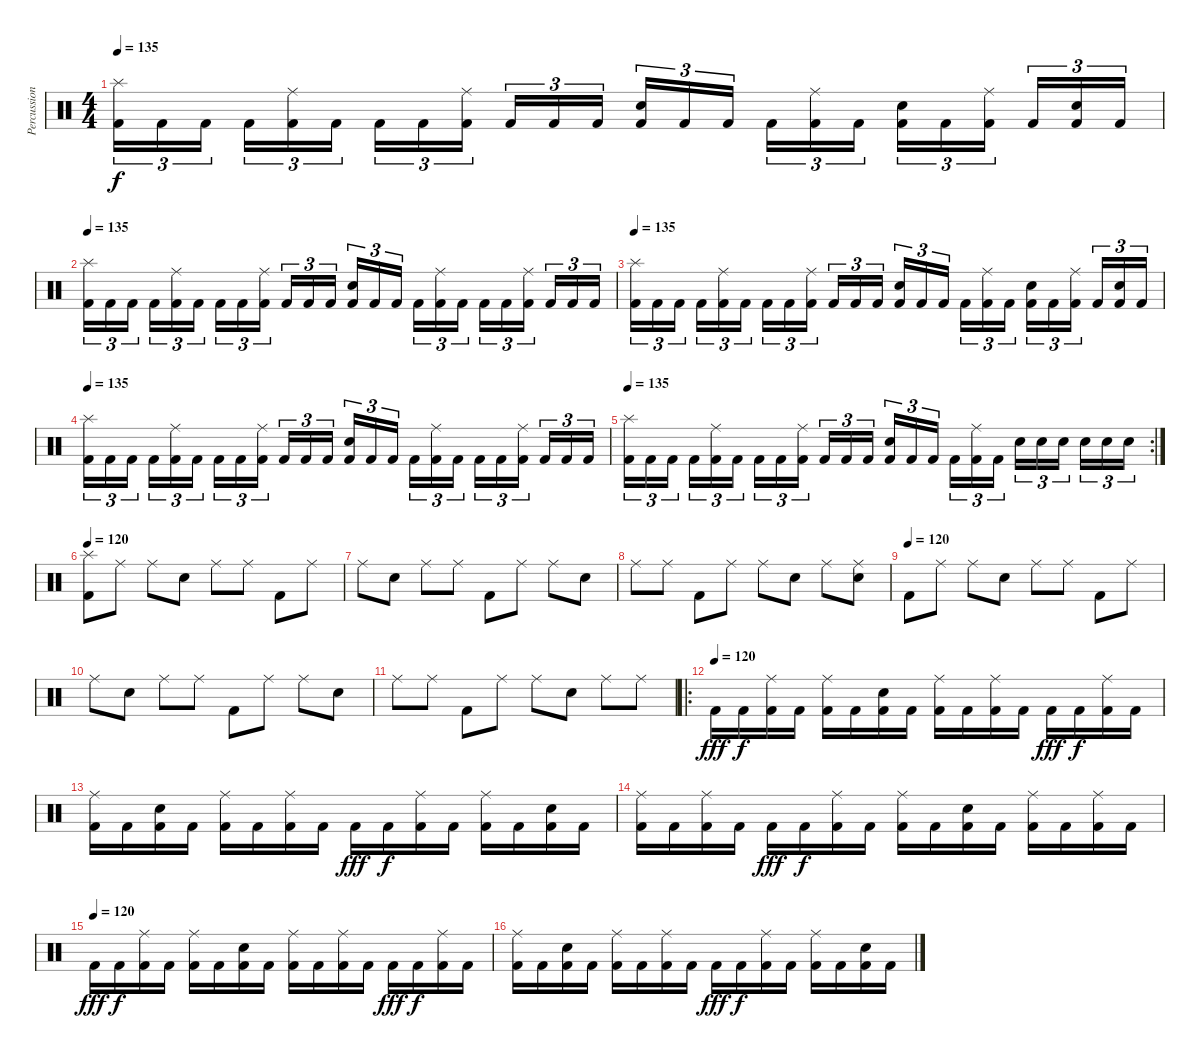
\track ("Percussions" "Percussion") {instrument percussion}
\staff {score}
\articulation defaults
\ts (4 4)
\tempo 135
\clef neutral
\ks c
("Splash (hit)" "Kick (hit) 2").16{tu (3 2) dy f} "Kick (hit) 2".16{tu (3 2)} "Kick (hit) 2".16{tu (3 2)} "Kick (hit) 2".16{tu (3 2)} ("Ride (middle)" "Kick (hit) 2").16{tu (3 2)} "Kick (hit) 2".16{tu (3 2)} "Kick (hit) 2".16{tu (3 2)} "Kick (hit) 2".16{tu (3 2)} ("Ride (middle)" "Kick (hit) 2").16{tu (3 2)} "Kick (hit) 2".16{tu (3 2)} "Kick (hit) 2".16{tu (3 2)} "Kick (hit) 2".16{tu (3 2)} ("Electric Snare (hit)" "Kick (hit) 2").16{tu (3 2)} "Kick (hit) 2".16{tu (3 2)} "Kick (hit) 2".16{tu (3 2)} "Kick (hit) 2".16{tu (3 2)} ("Ride (middle)" "Kick (hit) 2").16{tu (3 2)} "Kick (hit) 2".16{tu (3 2)} ("Electric Snare (hit)" "Kick (hit) 2").16{tu (3 2)} "Kick (hit) 2".16{tu (3 2)} ("Ride (middle)" "Kick (hit) 2").16{tu (3 2)} "Kick (hit) 2".16{tu (3 2)} ("Electric Snare (hit)" "Kick (hit) 2").16{tu (3 2)} "Kick (hit) 2".16{tu (3 2)} |
\tempo 135
("Splash (hit)" "Kick (hit) 2").16{tu (3 2)} "Kick (hit) 2".16{tu (3 2)} "Kick (hit) 2".16{tu (3 2)} "Kick (hit) 2".16{tu (3 2)} ("Ride (middle)" "Kick (hit) 2").16{tu (3 2)} "Kick (hit) 2".16{tu (3 2)} "Kick (hit) 2".16{tu (3 2)} "Kick (hit) 2".16{tu (3 2)} ("Ride (middle)" "Kick (hit) 2").16{tu (3 2)} "Kick (hit) 2".16{tu (3 2)} "Kick (hit) 2".16{tu (3 2)} "Kick (hit) 2".16{tu (3 2)} ("Electric Snare (hit)" "Kick (hit) 2").16{tu (3 2)} "Kick (hit) 2".16{tu (3 2)} "Kick (hit) 2".16{tu (3 2)} "Kick (hit) 2".16{tu (3 2)} ("Ride (middle)" "Kick (hit) 2").16{tu (3 2)} "Kick (hit) 2".16{tu (3 2)} "Kick (hit) 2".16{tu (3 2)} "Kick (hit) 2".16{tu (3 2)} ("Ride (middle)" "Kick (hit) 2").16{tu (3 2)} "Kick (hit) 2".16{tu (3 2)} "Kick (hit) 2".16{tu (3 2)} "Kick (hit) 2".16{tu (3 2)} |
\tempo 135
("Splash (hit)" "Kick (hit) 2").16{tu (3 2)} "Kick (hit) 2".16{tu (3 2)} "Kick (hit) 2".16{tu (3 2)} "Kick (hit) 2".16{tu (3 2)} ("Ride (middle)" "Kick (hit) 2").16{tu (3 2)} "Kick (hit) 2".16{tu (3 2)} "Kick (hit) 2".16{tu (3 2)} "Kick (hit) 2".16{tu (3 2)} ("Ride (middle)" "Kick (hit) 2").16{tu (3 2)} "Kick (hit) 2".16{tu (3 2)} "Kick (hit) 2".16{tu (3 2)} "Kick (hit) 2".16{tu (3 2)} ("Electric Snare (hit)" "Kick (hit) 2").16{tu (3 2)} "Kick (hit) 2".16{tu (3 2)} "Kick (hit) 2".16{tu (3 2)} "Kick (hit) 2".16{tu (3 2)} ("Ride (middle)" "Kick (hit) 2").16{tu (3 2)} "Kick (hit) 2".16{tu (3 2)} ("Electric Snare (hit)" "Kick (hit) 2").16{tu (3 2)} "Kick (hit) 2".16{tu (3 2)} ("Ride (middle)" "Kick (hit) 2").16{tu (3 2)} "Kick (hit) 2".16{tu (3 2)} ("Electric Snare (hit)" "Kick (hit) 2").16{tu (3 2)} "Kick (hit) 2".16{tu (3 2)} |
\tempo 135
("Splash (hit)" "Kick (hit) 2").16{tu (3 2)} "Kick (hit) 2".16{tu (3 2)} "Kick (hit) 2".16{tu (3 2)} "Kick (hit) 2".16{tu (3 2)} ("Ride (middle)" "Kick (hit) 2").16{tu (3 2)} "Kick (hit) 2".16{tu (3 2)} "Kick (hit) 2".16{tu (3 2)} "Kick (hit) 2".16{tu (3 2)} ("Ride (middle)" "Kick (hit) 2").16{tu (3 2)} "Kick (hit) 2".16{tu (3 2)} "Kick (hit) 2".16{tu (3 2)} "Kick (hit) 2".16{tu (3 2)} ("Electric Snare (hit)" "Kick (hit) 2").16{tu (3 2)} "Kick (hit) 2".16{tu (3 2)} "Kick (hit) 2".16{tu (3 2)} "Kick (hit) 2".16{tu (3 2)} ("Ride (middle)" "Kick (hit) 2").16{tu (3 2)} "Kick (hit) 2".16{tu (3 2)} "Kick (hit) 2".16{tu (3 2)} "Kick (hit) 2".16{tu (3 2)} ("Ride (middle)" "Kick (hit) 2").16{tu (3 2)} "Kick (hit) 2".16{tu (3 2)} "Kick (hit) 2".16{tu (3 2)} "Kick (hit) 2".16{tu (3 2)} |
\rc 2
\tempo 135
("Splash (hit)" "Kick (hit) 2").16{tu (3 2)} "Kick (hit) 2".16{tu (3 2)} "Kick (hit) 2".16{tu (3 2)} "Kick (hit) 2".16{tu (3 2)} ("Ride (middle)" "Kick (hit) 2").16{tu (3 2)} "Kick (hit) 2".16{tu (3 2)} "Kick (hit) 2".16{tu (3 2)} "Kick (hit) 2".16{tu (3 2)} ("Ride (middle)" "Kick (hit) 2").16{tu (3 2)} "Kick (hit) 2".16{tu (3 2)} "Kick (hit) 2".16{tu (3 2)} "Kick (hit) 2".16{tu (3 2)} ("Electric Snare (hit)" "Kick (hit) 2").16{tu (3 2)} "Kick (hit) 2".16{tu (3 2)} "Kick (hit) 2".16{tu (3 2)} "Kick (hit) 2".16{tu (3 2)} ("Ride (middle)" "Kick (hit) 2").16{tu (3 2)} "Kick (hit) 2".16{tu (3 2)} "Electric Snare (hit)".16{tu (3 2)} "Electric Snare (hit)".16{tu (3 2)} "Electric Snare (hit)".16{tu (3 2)} "Electric Snare (hit)".16{tu (3 2)} "Electric Snare (hit)".16{tu (3 2)} "Electric Snare (hit)".16{tu (3 2)} |
\tempo 120
("Splash (hit)" "Kick (hit) 2").8 "Ride (middle)".8 "Ride (middle)".8 "Electric Snare (hit)".8 "Ride (middle)".8 "Ride (middle)".8 "Kick (hit) 2".8 "Ride (middle)".8 |
"Ride (middle)".8 "Electric Snare (hit)".8 "Ride (middle)".8 "Ride (middle)".8 "Kick (hit) 2".8 "Ride (middle)".8 "Ride (middle)".8 "Electric Snare (hit)".8 |
"Ride (middle)".8 "Ride (middle)".8 "Kick (hit) 2".8 "Ride (middle)".8 "Ride (middle)".8 "Electric Snare (hit)".8 "Ride (middle)".8 ("Ride (middle)" "Electric Snare (hit)").8 |
\tempo (120)
"Kick (hit) 2".8 "Ride (middle)".8 "Ride (middle)".8 "Electric Snare (hit)".8 "Ride (middle)".8 "Ride (middle)".8 "Kick (hit) 2".8 "Ride (middle)".8 |
"Ride (middle)".8 "Electric Snare (hit)".8 "Ride (middle)".8 "Ride (middle)".8 "Kick (hit) 2".8 "Ride (middle)".8 "Ride (middle)".8 "Electric Snare (hit)".8 |
"Ride (middle)".8 "Ride (middle)".8 "Kick (hit) 2".8 "Ride (middle)".8 "Ride (middle)".8 "Electric Snare (hit)".8 "Ride (middle)".8 "Ride (middle)".8 |
\ro
\tempo (120)
"Kick (hit) 2".16{dy fff} "Kick (hit) 2".16{dy f} ("Ride (middle)" "Kick (hit) 2").16 "Kick (hit) 2".16 ("Ride (middle)" "Kick (hit) 2").16 "Kick (hit) 2".16 ("Electric Snare (hit)" "Kick (hit) 2").16 "Kick (hit) 2".16 ("Ride (middle)" "Kick (hit) 2").16 "Kick (hit) 2".16 ("Ride (middle)" "Kick (hit) 2").16 "Kick (hit) 2".16 "Kick (hit) 2".16{dy fff} "Kick (hit) 2".16{dy f} ("Ride (middle)" "Kick (hit) 2").16 "Kick (hit) 2".16 |
("Ride (middle)" "Kick (hit) 2").16 "Kick (hit) 2".16 ("Electric Snare (hit)" "Kick (hit) 2").16 "Kick (hit) 2".16 ("Ride (middle)" "Kick (hit) 2").16 "Kick (hit) 2".16 ("Ride (middle)" "Kick (hit) 2").16 "Kick (hit) 2".16 "Kick (hit) 2".16{dy fff} "Kick (hit) 2".16{dy f} ("Ride (middle)" "Kick (hit) 2").16 "Kick (hit) 2".16 ("Ride (middle)" "Kick (hit) 2").16 "Kick (hit) 2".16 ("Electric Snare (hit)" "Kick (hit) 2").16 "Kick (hit) 2".16 |
("Ride (middle)" "Kick (hit) 2").16 "Kick (hit) 2".16 ("Ride (middle)" "Kick (hit) 2").16 "Kick (hit) 2".16 "Kick (hit) 2".16{dy fff} "Kick (hit) 2".16{dy f} ("Ride (middle)" "Kick (hit) 2").16 "Kick (hit) 2".16 ("Ride (middle)" "Kick (hit) 2").16 "Kick (hit) 2".16 ("Electric Snare (hit)" "Kick (hit) 2").16 "Kick (hit) 2".16 ("Ride (middle)" "Kick (hit) 2").16 "Kick (hit) 2".16 ("Ride (middle)" "Kick (hit) 2").16 "Kick (hit) 2".16 |
\tempo (120)
"Kick (hit) 2".16{dy fff} "Kick (hit) 2".16{dy f} ("Ride (middle)" "Kick (hit) 2").16 "Kick (hit) 2".16 ("Ride (middle)" "Kick (hit) 2").16 "Kick (hit) 2".16 ("Electric Snare (hit)" "Kick (hit) 2").16 "Kick (hit) 2".16 ("Ride (middle)" "Kick (hit) 2").16 "Kick (hit) 2".16 ("Ride (middle)" "Kick (hit) 2").16 "Kick (hit) 2".16 "Kick (hit) 2".16{dy fff} "Kick (hit) 2".16{dy f} ("Ride (middle)" "Kick (hit) 2").16 "Kick (hit) 2".16 |
("Ride (middle)" "Kick (hit) 2").16 "Kick (hit) 2".16 ("Electric Snare (hit)" "Kick (hit) 2").16 "Kick (hit) 2".16 ("Ride (middle)" "Kick (hit) 2").16 "Kick (hit) 2".16 ("Ride (middle)" "Kick (hit) 2").16 "Kick (hit) 2".16 "Kick (hit) 2".16{dy fff} "Kick (hit) 2".16{dy f} ("Ride (middle)" "Kick (hit) 2").16 "Kick (hit) 2".16 ("Ride (middle)" "Kick (hit) 2").16 "Kick (hit) 2".16 ("Electric Snare (hit)" "Kick (hit) 2").16 "Kick (hit) 2".16
